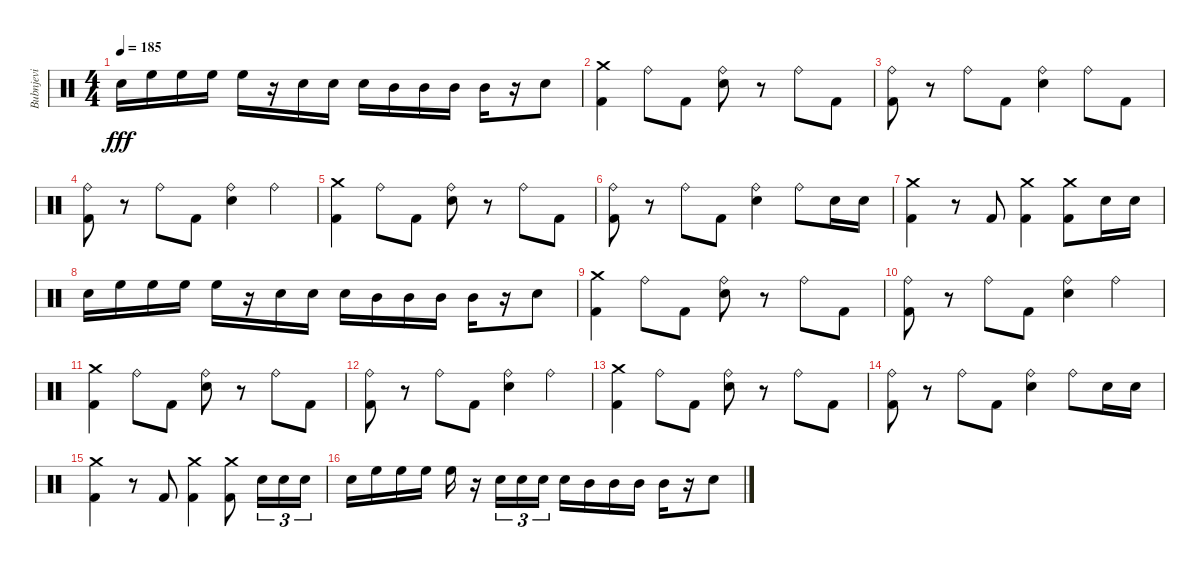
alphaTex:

\track ("Bubnjevi" "Bubnjevi") {instrument percussion}
\staff {score}
\articulation defaults
\ts (4 4)
\tempo 185
\clef neutral
\ks c "Snare (hit) 2".16{dy fff} "High Floor Tom (hit)".16 "High Floor Tom (hit)".16 "High Floor Tom (hit)".16 "High Floor Tom (hit)".16
r.16 "Snare (hit) 2".16 "Snare (hit) 2".16 "Snare (hit) 2".16 "Mid Tom (hit)".16 "Mid Tom (hit)".16 "Mid Tom (hit)".16 "Mid Tom (hit)".16 r.16 "Snare (hit) 2".8 |
("Crash medium (hit)" "Kick (hit) 2").4 "Ride (bell)".8 "Kick (hit) 2".8 ("Ride (bell)" "Snare (hit) 2").8 r.8 "Ride (bell)".8 "Kick (hit) 2".8 |
("Ride (bell)" "Kick (hit) 2").8 r.8 "Ride (bell)".8 "Kick (hit) 2".8 ("Ride (bell)" "Snare (hit) 2").4 "Ride (bell)".8 "Kick (hit) 2".8 |
("Ride (bell)" "Kick (hit) 2").8 r.8 "Ride (bell)".8 "Kick (hit) 2".8 ("Ride (bell)" "Snare (hit) 2").4 "Ride (bell)".4 |
("Crash medium (hit)" "Kick (hit) 2").4 "Ride (bell)".8 "Kick (hit) 2".8 ("Ride (bell)" "Snare (hit) 2").8 r.8 "Ride (bell)".8 "Kick (hit) 2".8 |
("Ride (bell)" "Kick (hit) 2").8 r.8 "Ride (bell)".8 "Kick (hit) 2".8 ("Ride (bell)" "Snare (hit) 2").4 "Ride (bell)".8 "Snare (hit) 2".16 "Snare (hit) 2".16 |
("Crash medium (hit)" "Kick (hit) 2").4 r.8 "Kick (hit) 2".8 ("Crash medium (hit)" "Kick (hit) 2").4 ("Crash medium (hit)" "Kick (hit) 2").8 "Snare (hit) 2".16 "Snare (hit) 2".16 |
"Snare (hit) 2".16 "High Floor Tom (hit)".16 "High Floor Tom (hit)".16 "High Floor Tom (hit)".16 "High Floor Tom (hit)".16 r.16 "Snare (hit) 2".16 "Snare (hit) 2".16 "Snare (hit) 2".16 "Mid Tom (hit)".16 "Mid Tom (hit)".16 "Mid Tom (hit)".16 "Mid Tom (hit)".16 r.16 "Snare (hit) 2".8 |
("Crash medium (hit)" "Kick (hit) 2").4 "Ride (bell)".8 "Kick (hit) 2".8 ("Ride (bell)" "Snare (hit) 2").8 r.8 "Ride (bell)".8 "Kick (hit) 2".8 |
("Ride (bell)" "Kick (hit) 2").8 r.8 "Ride (bell)".8 "Kick (hit) 2".8 ("Ride (bell)" "Snare (hit) 2").4 "Ride (bell)".4 |
("Crash medium (hit)" "Kick (hit) 2").4 "Ride (bell)".8 "Kick (hit) 2".8 ("Ride (bell)" "Snare (hit) 2").8 r.8 "Ride (bell)".8 "Kick (hit) 2".8 |
("Ride (bell)" "Kick (hit) 2").8 r.8 "Ride (bell)".8 "Kick (hit) 2".8 ("Ride (bell)" "Snare (hit) 2").4 "Ride (bell)".4 |
("Crash medium (hit)" "Kick (hit) 2").4 "Ride (bell)".8 "Kick (hit) 2".8 ("Ride (bell)" "Snare (hit) 2").8 r.8 "Ride (bell)".8 "Kick (hit) 2".8 |
("Ride (bell)" "Kick (hit) 2").8 r.8 "Ride (bell)".8 "Kick (hit) 2".8 ("Ride (bell)" "Snare (hit) 2").4 "Ride (bell)".8 "Snare (hit) 2".16 "Snare (hit) 2".16 |
("Crash medium (hit)" "Kick (hit) 2").4 r.8 "Kick (hit) 2".8 ("Crash medium (hit)" "Kick (hit) 2").4 ("Crash medium (hit)" "Kick (hit) 2").8 "Snare (hit) 2".16{tu (3 2)} "Snare (hit) 2".16{tu (3 2)} "Snare (hit) 2".16{tu (3 2)} |
"Snare (hit) 2".16 "High Floor Tom (hit)".16 "High Floor Tom (hit)".16 "High Floor Tom (hit)".16 "High Floor Tom (hit)".16 r.16 "Snare (hit) 2".16{tu (3 2)} "Snare (hit) 2".16{tu (3 2)} "Snare (hit) 2".16{tu (3 2)} "Snare (hit) 2".16 "Mid Tom (hit)".16 "Mid Tom (hit)".16 "Mid Tom (hit)".16 "Mid Tom (hit)".16 r.16 "Snare (hit) 2".8
